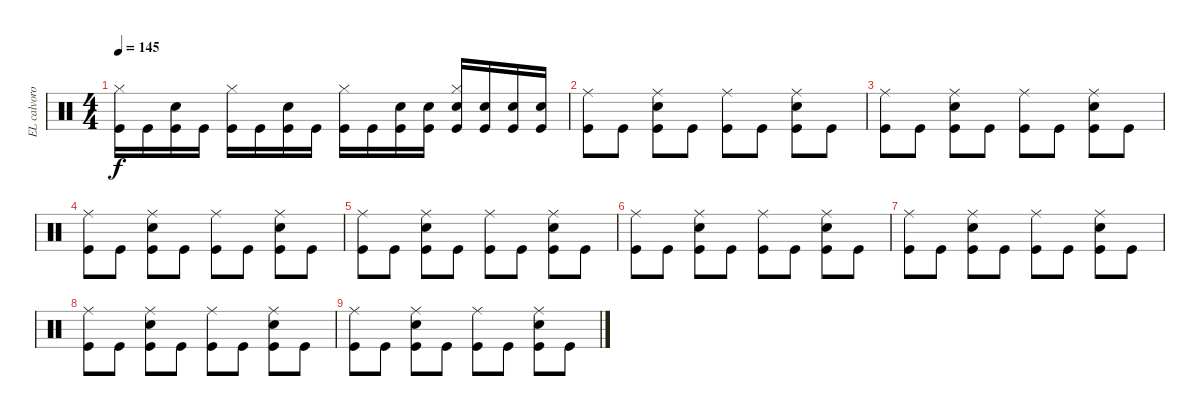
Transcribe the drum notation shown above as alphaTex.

\track ("EL calvorotas" "EL calvoro") {instrument percussion}
\staff {score}
\articulation defaults
\ts (4 4)
\tempo 145
\clef neutral
\ks c
("Kick (hit)" "Hi-Hat (closed)").16{dy f} "Kick (hit)".16 ("Kick (hit)" "Snare (hit) 2").16 "Kick (hit)".16 ("Kick (hit)" "Hi-Hat (closed)").16 "Kick (hit)".16 ("Kick (hit)" "Snare (hit) 2").16 "Kick (hit)".16 ("Hi-Hat (closed)" "Kick (hit)").16 "Kick (hit)".16 ("Kick (hit)" "Snare (hit) 2").16 ("Kick (hit)" "Snare (hit) 2").16 ("Hi-Hat (closed)" "Kick (hit)" "Snare (hit) 2").16 ("Kick (hit)" "Snare (hit) 2").16 ("Kick (hit)" "Snare (hit) 2").16 ("Kick (hit)" "Snare (hit) 2").16 |
("Kick (hit)" "Ride (middle)").8 "Kick (hit)".8 ("Kick (hit)" "Snare (hit) 2" "Ride (middle)").8 "Kick (hit)".8 ("Kick (hit)" "Ride (middle)").8 "Kick (hit)".8 ("Kick (hit)" "Snare (hit) 2" "Ride (middle)").8 "Kick (hit)".8 |
("Kick (hit)" "Ride (middle)").8 "Kick (hit)".8 ("Kick (hit)" "Snare (hit) 2" "Ride (middle)").8 "Kick (hit)".8 ("Kick (hit)" "Ride (middle)").8 "Kick (hit)".8 ("Kick (hit)" "Snare (hit) 2" "Ride (middle)").8 "Kick (hit)".8 |
("Kick (hit)" "Ride (middle)").8 "Kick (hit)".8 ("Kick (hit)" "Snare (hit) 2" "Ride (middle)").8 "Kick (hit)".8 ("Kick (hit)" "Ride (middle)").8 "Kick (hit)".8 ("Kick (hit)" "Snare (hit) 2" "Ride (middle)").8 "Kick (hit)".8 |
("Kick (hit)" "Ride (middle)").8 "Kick (hit)".8 ("Kick (hit)" "Snare (hit) 2" "Ride (middle)").8 "Kick (hit)".8 ("Kick (hit)" "Ride (middle)").8 "Kick (hit)".8 ("Kick (hit)" "Snare (hit) 2" "Ride (middle)").8 "Kick (hit)".8 |
("Kick (hit)" "Ride (middle)").8 "Kick (hit)".8 ("Kick (hit)" "Snare (hit) 2" "Ride (middle)").8 "Kick (hit)".8 ("Kick (hit)" "Ride (middle)").8 "Kick (hit)".8 ("Kick (hit)" "Snare (hit) 2" "Ride (middle)").8 "Kick (hit)".8 |
("Kick (hit)" "Ride (middle)").8 "Kick (hit)".8 ("Kick (hit)" "Snare (hit) 2" "Ride (middle)").8 "Kick (hit)".8 ("Kick (hit)" "Ride (middle)").8 "Kick (hit)".8 ("Kick (hit)" "Snare (hit) 2" "Ride (middle)").8 "Kick (hit)".8 |
("Kick (hit)" "Ride (middle)").8 "Kick (hit)".8 ("Kick (hit)" "Snare (hit) 2" "Ride (middle)").8 "Kick (hit)".8 ("Kick (hit)" "Ride (middle)").8 "Kick (hit)".8 ("Kick (hit)" "Snare (hit) 2" "Ride (middle)").8 "Kick (hit)".8 |
("Kick (hit)" "Ride (middle)").8 "Kick (hit)".8 ("Kick (hit)" "Snare (hit) 2" "Ride (middle)").8 "Kick (hit)".8 ("Kick (hit)" "Ride (middle)").8 "Kick (hit)".8 ("Kick (hit)" "Snare (hit) 2" "Ride (middle)").8 "Kick (hit)".8
